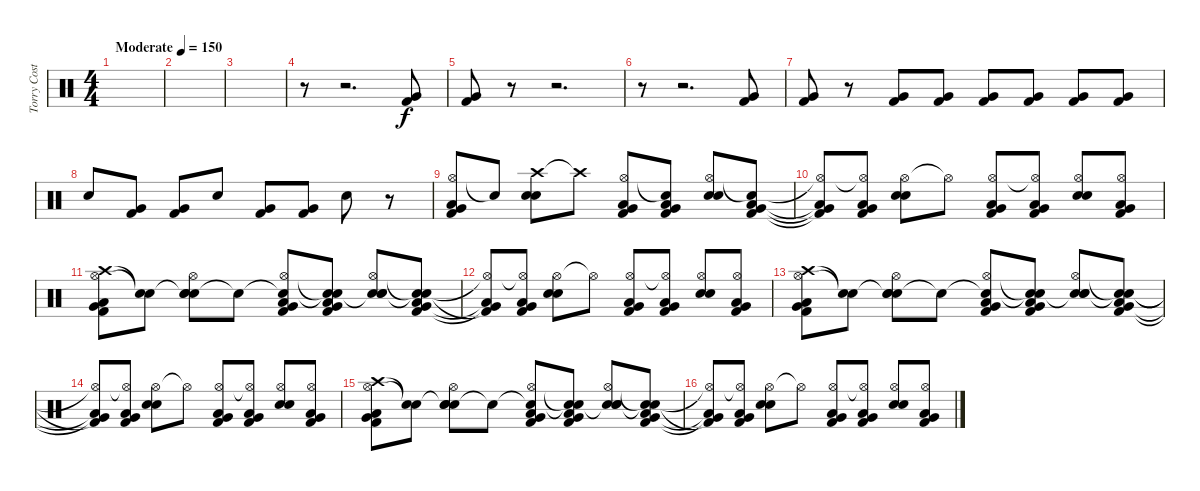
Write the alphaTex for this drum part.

\track ("Torry Costellano" "Torry Cost") {instrument percussion bank 127}
\staff {score}
\articulation defaults
\ts (4 4)
\tempo (150 "Moderate")
\clef neutral
\ks c
|
|
|
r.8 r.2{d} ("Very Low Tom (hit)" "Kick (hit) 2").8 |
("Very Low Tom (hit)" "Kick (hit) 2").8 r.8 r.2{d} |
r.8 r.2{d} ("Very Low Tom (hit)" "Kick (hit) 2").8 |
("Very Low Tom (hit)" "Kick (hit) 2").8 r.8 ("Very Low Tom (hit)" "Kick (hit) 2").8 ("Very Low Tom (hit)" "Kick (hit) 2").8 ("Very Low Tom (hit)" "Kick (hit) 2").8 ("Very Low Tom (hit)" "Kick (hit) 2").8 ("Very Low Tom (hit)" "Kick (hit) 2").8 ("Very Low Tom (hit)" "Kick (hit) 2").8 |
"Electric Snare (hit)".8 ("Kick (hit) 2" "Very Low Tom (hit)").8 ("Kick (hit) 2" "Very Low Tom (hit)").8 "Electric Snare (hit)".8 ("Kick (hit) 2" "Very Low Tom (hit)").8 ("Kick (hit) 2" "Very Low Tom (hit)").8 "Electric Snare (hit)".8 r.8 |
("Hi-Hat (open)" "Kick (hit) 2" "Very Low Tom (hit)" "Low Tom (hit)").8 "Snare (hit)"{t}.8 ("Crash high (hit)" "Electric Snare (hit)" "Snare (hit) 2").8 "Crash high (hit)"{t}.8 ("Hi-Hat (open)" "Kick (hit) 2" "Very Low Tom (hit)" "Low Tom (hit)").8 ("Snare (hit)"{t} "Kick (hit) 2" "Very Low Tom (hit)" "Low Tom (hit)").8 ("Hi-Hat (open)" "Electric Snare (hit)" "Snare (hit) 2").8 ("Snare (hit)"{t} "Kick (hit) 2" "Very Low Tom (hit)" "Low Tom (hit)").8 |
("Hi-Hat (open)"{t} "Kick (hit) 2"{t} "Very Low Tom (hit)"{t} "Low Tom (hit)"{t}).8 ("Hi-Hat (open)"{t} "Low Tom (hit)" "Very Low Tom (hit)" "Kick (hit) 2").8 ("Hi-Hat (open)" "Electric Snare (hit)" "Snare (hit) 2").8 "Hi-Hat (open)"{t}.8 ("Hi-Hat (open)" "Low Tom (hit)" "Very Low Tom (hit)" "Kick (hit) 2").8 ("Hi-Hat (open)"{t} "Low Tom (hit)" "Very Low Tom (hit)" "Kick (hit) 2").8 ("Hi-Hat (open)" "Snare (hit) 2" "Electric Snare (hit)").8 ("Hi-Hat (open)" "Low Tom (hit)" "Very Low Tom (hit)" "Kick (hit) 2").8 |
("Crash high (hit)" "Hi-Hat (open)" "Kick (hit) 2" "Very Low Tom (hit)" "Low Tom (hit)").8 ("Snare (hit)"{t} "Snare (hit)"{t}).8 ("Snare (hit)"{t} "Hi-Hat (open)" "Electric Snare (hit)" "Snare (hit) 2").8 "Snare (hit)"{t}.8 ("Snare (hit)"{t} "Hi-Hat (open)" "Kick (hit) 2" "Very Low Tom (hit)" "Low Tom (hit)").8 ("Snare (hit)"{t} "Snare (hit)"{t} "Kick (hit) 2" "Very Low Tom (hit)" "Low Tom (hit)").8 ("Snare (hit)"{t} "Hi-Hat (open)" "Electric Snare (hit)" "Snare (hit) 2").8 ("Snare (hit)"{t} "Snare (hit)"{t} "Kick (hit) 2" "Very Low Tom (hit)" "Low Tom (hit)").8 |
("Hi-Hat (open)"{t} "Kick (hit) 2"{t} "Very Low Tom (hit)"{t} "Low Tom (hit)"{t}).8 ("Hi-Hat (open)"{t} "Low Tom (hit)" "Very Low Tom (hit)" "Kick (hit) 2").8 ("Hi-Hat (open)" "Electric Snare (hit)" "Snare (hit) 2").8 "Hi-Hat (open)"{t}.8 ("Hi-Hat (open)" "Low Tom (hit)" "Very Low Tom (hit)" "Kick (hit) 2").8 ("Hi-Hat (open)"{t} "Low Tom (hit)" "Very Low Tom (hit)" "Kick (hit) 2").8 ("Hi-Hat (open)" "Snare (hit) 2" "Electric Snare (hit)").8 ("Hi-Hat (open)" "Low Tom (hit)" "Very Low Tom (hit)" "Kick (hit) 2").8 |
("Crash high (hit)" "Hi-Hat (open)" "Kick (hit) 2" "Very Low Tom (hit)" "Low Tom (hit)").8 ("Snare (hit)"{t} "Snare (hit)"{t}).8 ("Snare (hit)"{t} "Hi-Hat (open)" "Electric Snare (hit)" "Snare (hit) 2").8 "Snare (hit)"{t}.8 ("Snare (hit)"{t} "Hi-Hat (open)" "Kick (hit) 2" "Very Low Tom (hit)" "Low Tom (hit)").8 ("Snare (hit)"{t} "Snare (hit)"{t} "Kick (hit) 2" "Very Low Tom (hit)" "Low Tom (hit)").8 ("Snare (hit)"{t} "Hi-Hat (open)" "Electric Snare (hit)" "Snare (hit) 2").8 ("Snare (hit)"{t} "Snare (hit)"{t} "Kick (hit) 2" "Very Low Tom (hit)" "Low Tom (hit)").8 |
("Hi-Hat (open)"{t} "Kick (hit) 2"{t} "Very Low Tom (hit)"{t} "Low Tom (hit)"{t}).8 ("Hi-Hat (open)"{t} "Low Tom (hit)" "Very Low Tom (hit)" "Kick (hit) 2").8 ("Hi-Hat (open)" "Electric Snare (hit)" "Snare (hit) 2").8 "Hi-Hat (open)"{t}.8 ("Hi-Hat (open)" "Low Tom (hit)" "Very Low Tom (hit)" "Kick (hit) 2").8 ("Hi-Hat (open)"{t} "Low Tom (hit)" "Very Low Tom (hit)" "Kick (hit) 2").8 ("Hi-Hat (open)" "Snare (hit) 2" "Electric Snare (hit)").8 ("Hi-Hat (open)" "Low Tom (hit)" "Very Low Tom (hit)" "Kick (hit) 2").8 |
("Crash high (hit)" "Hi-Hat (open)" "Kick (hit) 2" "Very Low Tom (hit)" "Low Tom (hit)").8 ("Snare (hit)"{t} "Snare (hit)"{t}).8 ("Snare (hit)"{t} "Hi-Hat (open)" "Electric Snare (hit)" "Snare (hit) 2").8 "Snare (hit)"{t}.8 ("Snare (hit)"{t} "Hi-Hat (open)" "Kick (hit) 2" "Very Low Tom (hit)" "Low Tom (hit)").8 ("Snare (hit)"{t} "Snare (hit)"{t} "Kick (hit) 2" "Very Low Tom (hit)" "Low Tom (hit)").8 ("Snare (hit)"{t} "Hi-Hat (open)" "Electric Snare (hit)" "Snare (hit) 2").8 ("Snare (hit)"{t} "Snare (hit)"{t} "Kick (hit) 2" "Very Low Tom (hit)" "Low Tom (hit)").8 |
("Hi-Hat (open)"{t} "Kick (hit) 2"{t} "Very Low Tom (hit)"{t} "Low Tom (hit)"{t}).8 ("Hi-Hat (open)"{t} "Low Tom (hit)" "Very Low Tom (hit)" "Kick (hit) 2").8 ("Hi-Hat (open)" "Electric Snare (hit)" "Snare (hit) 2").8 "Hi-Hat (open)"{t}.8 ("Hi-Hat (open)" "Low Tom (hit)" "Very Low Tom (hit)" "Kick (hit) 2").8 ("Hi-Hat (open)"{t} "Low Tom (hit)" "Very Low Tom (hit)" "Kick (hit) 2").8 ("Hi-Hat (open)" "Snare (hit) 2" "Electric Snare (hit)").8 ("Hi-Hat (open)" "Low Tom (hit)" "Very Low Tom (hit)" "Kick (hit) 2").8
